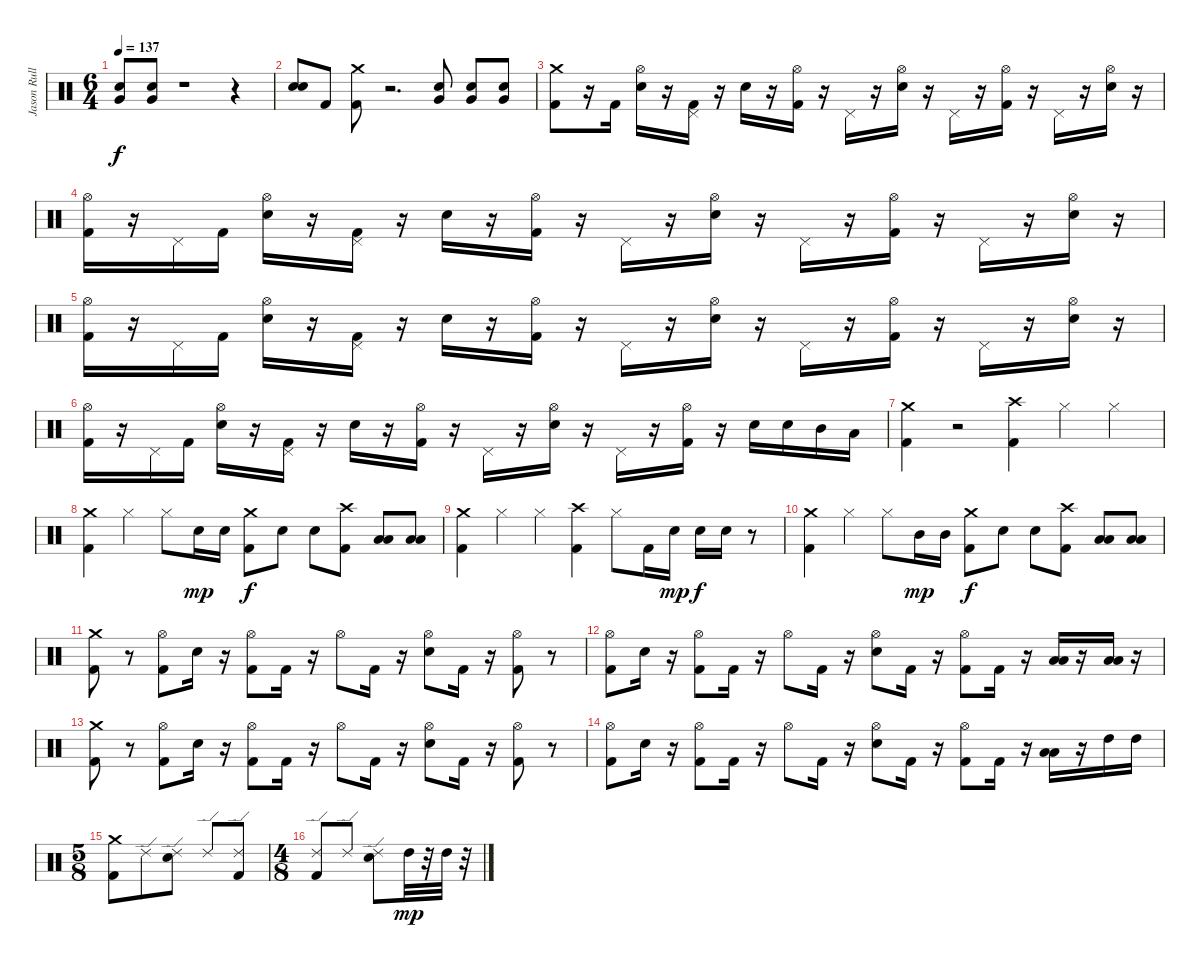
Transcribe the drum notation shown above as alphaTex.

\track ("Jason Rullo" "Jason Rull") {instrument percussion}
\staff {score}
\articulation defaults
\ts (6 4)
\tempo 137
\clef neutral
\ks c
("Very Low Tom (hit)" "Electric Snare (hit)").8{dy f} ("Very Low Tom (hit)" "Electric Snare (hit)").8 r.1 r.4 |
("Electric Snare (hit)" "Electric Snare (hit)").8 "Kick (hit) 2".8 ("Crash medium (hit)" "Kick (hit) 2").8 r.2{d} ("Very Low Tom (hit)" "Electric Snare (hit)").8{volume 5} ("Very Low Tom (hit)" "Electric Snare (hit)").8{volume 8} ("Very Low Tom (hit)" "Electric Snare (hit)").8{volume 12} |
("Crash medium (hit)" "Kick (hit) 2").8{volume 16} r.16 "Kick (hit) 2".16 ("Hi-Hat (open)" "Electric Snare (hit)").16 r.16 ("Pedal Hi-Hat (hit)" "Kick (hit) 2").16 r.16 "Electric Snare (hit)".16 r.16 ("Hi-Hat (open)" "Kick (hit) 2").16 r.16 "Pedal Hi-Hat (hit)".16 r.16 ("Hi-Hat (open)" "Electric Snare (hit)").16 r.16 "Pedal Hi-Hat (hit)".16 r.16 ("Hi-Hat (open)" "Kick (hit) 2").16 r.16 "Pedal Hi-Hat (hit)".16 r.16 ("Hi-Hat (open)" "Electric Snare (hit)").16 r.16 |
("Hi-Hat (open)" "Kick (hit) 2").16 r.16 "Pedal Hi-Hat (hit)".16 "Kick (hit) 2".16 ("Hi-Hat (open)" "Electric Snare (hit)").16 r.16 ("Pedal Hi-Hat (hit)" "Kick (hit) 2").16 r.16 "Electric Snare (hit)".16 r.16 ("Hi-Hat (open)" "Kick (hit) 2").16 r.16 "Pedal Hi-Hat (hit)".16 r.16 ("Hi-Hat (open)" "Electric Snare (hit)").16 r.16 "Pedal Hi-Hat (hit)".16 r.16 ("Hi-Hat (open)" "Kick (hit) 2").16 r.16 "Pedal Hi-Hat (hit)".16 r.16 ("Hi-Hat (open)" "Electric Snare (hit)").16 r.16 |
("Hi-Hat (open)" "Kick (hit) 2").16 r.16 "Pedal Hi-Hat (hit)".16 "Kick (hit) 2".16 ("Hi-Hat (open)" "Electric Snare (hit)").16 r.16 ("Pedal Hi-Hat (hit)" "Kick (hit) 2").16 r.16 "Electric Snare (hit)".16 r.16 ("Hi-Hat (open)" "Kick (hit) 2").16 r.16 "Pedal Hi-Hat (hit)".16 r.16 ("Hi-Hat (open)" "Electric Snare (hit)").16 r.16 "Pedal Hi-Hat (hit)".16 r.16 ("Hi-Hat (open)" "Kick (hit) 2").16 r.16 "Pedal Hi-Hat (hit)".16 r.16 ("Hi-Hat (open)" "Electric Snare (hit)").16 r.16 |
("Hi-Hat (open)" "Kick (hit) 2").16 r.16 "Pedal Hi-Hat (hit)".16 "Kick (hit) 2".16 ("Hi-Hat (open)" "Electric Snare (hit)").16 r.16 ("Pedal Hi-Hat (hit)" "Kick (hit) 2").16 r.16 "Electric Snare (hit)".16 r.16 ("Hi-Hat (open)" "Kick (hit) 2").16 r.16 "Pedal Hi-Hat (hit)".16 r.16 ("Hi-Hat (open)" "Electric Snare (hit)").16 r.16 "Pedal Hi-Hat (hit)".16 r.16 ("Hi-Hat (open)" "Kick (hit) 2").16 r.16 "Electric Snare (hit)".16 "Electric Snare (hit)".16 "Mid Tom (hit)".16 "Low Tom (hit)".16 |
("Crash medium (hit)" "Kick (hit) 2").4 r.2 ("Crash high (hit)" "Kick (hit) 2").4 "Hi-Hat (closed)".4 "Hi-Hat (closed)".4 |
("Crash medium (hit)" "Kick (hit) 2").4 "Hi-Hat (closed)".4 "Hi-Hat (closed)".8 "Electric Snare (hit)".16{dy mp} "Electric Snare (hit)".16 ("Crash medium (hit)" "Kick (hit) 2").8{dy f} "Electric Snare (hit)".8 "Electric Snare (hit)".8 ("Crash high (hit)" "Kick (hit) 2").8 ("Low Tom (hit)" "Low Floor Tom (hit)").8 ("Low Tom (hit)" "Low Floor Tom (hit)").8 |
("Crash medium (hit)" "Kick (hit) 2").4 "Hi-Hat (closed)".4 "Hi-Hat (closed)".4 ("Crash high (hit)" "Kick (hit) 2").4 "Hi-Hat (closed)".8 "Kick (hit) 2".16 "Electric Snare (hit)".16{dy mp} "Electric Snare (hit)".16{dy f} "Electric Snare (hit)".16 r.8 |
("Crash medium (hit)" "Kick (hit) 2").4 "Hi-Hat (closed)".4 "Hi-Hat (closed)".8 "Mid Tom (hit)".16{dy mp} "Mid Tom (hit)".16 ("Crash medium (hit)" "Kick (hit) 2").8{dy f} "Electric Snare (hit)".8 "Electric Snare (hit)".8 ("Crash high (hit)" "Kick (hit) 2").8 ("Low Tom (hit)" "Low Floor Tom (hit)").8 ("Low Tom (hit)" "Low Floor Tom (hit)").8 |
("Kick (hit) 2" "Crash medium (hit)").8 r.8 ("Kick (hit) 2" "Hi-Hat (open)").8 "Electric Snare (hit)".16 r.16 ("Kick (hit) 2" "Hi-Hat (open)").8 "Kick (hit) 2".16 r.16 "Hi-Hat (open)".8 "Kick (hit) 2".16 r.16 ("Electric Snare (hit)" "Hi-Hat (open)").8 "Kick (hit) 2".16 r.16 ("Kick (hit) 2" "Hi-Hat (open)").8 r.8 |
("Hi-Hat (open)" "Kick (hit) 2").8 "Electric Snare (hit)".16 r.16 ("Hi-Hat (open)" "Kick (hit) 2").8 "Kick (hit) 2".16 r.16 "Hi-Hat (open)".8 "Kick (hit) 2".16 r.16 ("Hi-Hat (open)" "Electric Snare (hit)").8 "Kick (hit) 2".16 r.16 ("Hi-Hat (open)" "Kick (hit) 2").8 "Kick (hit) 2".16 r.16 ("Low Tom (hit)" "Low Floor Tom (hit)").16 r.16 ("Low Tom (hit)" "Low Floor Tom (hit)").16 r.16 |
("Kick (hit) 2" "Crash medium (hit)").8 r.8 ("Kick (hit) 2" "Hi-Hat (open)").8 "Electric Snare (hit)".16 r.16 ("Kick (hit) 2" "Hi-Hat (open)").8 "Kick (hit) 2".16 r.16 "Hi-Hat (open)".8 "Kick (hit) 2".16 r.16 ("Electric Snare (hit)" "Hi-Hat (open)").8 "Kick (hit) 2".16 r.16 ("Kick (hit) 2" "Hi-Hat (open)").8 r.8 |
("Hi-Hat (open)" "Kick (hit) 2").8 "Electric Snare (hit)".16 r.16 ("Hi-Hat (open)" "Kick (hit) 2").8 "Kick (hit) 2".16 r.16 "Hi-Hat (open)".8 "Kick (hit) 2".16 r.16 ("Hi-Hat (open)" "Electric Snare (hit)").8 "Kick (hit) 2".16 r.16 ("Hi-Hat (open)" "Kick (hit) 2").8 "Kick (hit) 2".16 r.16 ("Low Tom (hit)" "Low Floor Tom (hit)").16 r.16 "High Tom (hit)".16 "High Tom (hit)".16 |
\ts (5 8)
("Crash medium (hit)" "Kick (hit) 2").8 "Ride (edge) 2".8 ("Ride (edge) 2" "Electric Snare (hit)").8 "Ride (edge) 2".8 ("Ride (edge) 2" "Kick (hit) 2").8 |
\ts (4 8)
("Ride (edge) 2" "Kick (hit) 2").8 "Ride (edge) 2".8 ("Ride (edge) 2" "Electric Snare (hit)").8 "High Tom (hit)".32{dy mp} r.32 "High Tom (hit)".32 r.32
